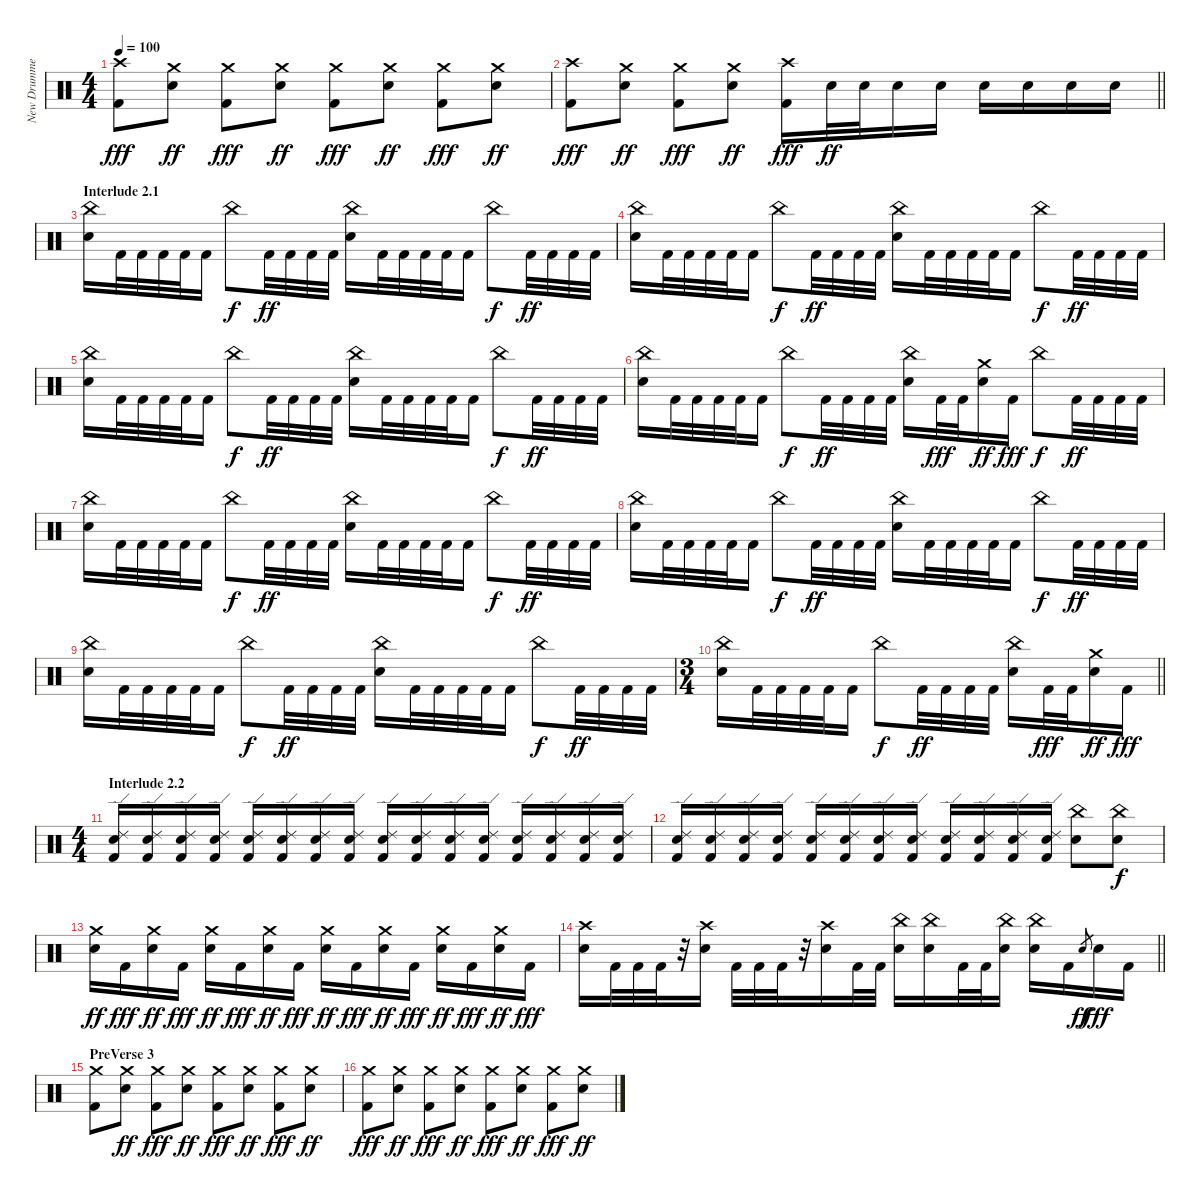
\track ("New Drummer" "New Drumme") {instrument percussion}
\staff {score}
\articulation defaults
\ts (4 4)
\tempo 100
\clef neutral
\ks c
("Crash high (hit)" "Kick (hit) 2").8{dy fff} ("Crash medium (hit)" "Electric Snare (hit)").8{dy ff} ("Crash medium (hit)" "Kick (hit) 2").8{dy fff} ("Crash medium (hit)" "Electric Snare (hit)").8{dy ff} ("Crash medium (hit)" "Kick (hit) 2").8{dy fff} ("Crash medium (hit)" "Electric Snare (hit)").8{dy ff} ("Crash medium (hit)" "Kick (hit) 2").8{dy fff} ("Crash medium (hit)" "Electric Snare (hit)").8{dy ff} |
\barLineRight lightlight
("Crash high (hit)" "Kick (hit) 2").8{dy fff} ("Crash medium (hit)" "Electric Snare (hit)").8{dy ff} ("Crash medium (hit)" "Kick (hit) 2").8{dy fff} ("Crash medium (hit)" "Electric Snare (hit)").8{dy ff} ("Crash high (hit)" "Kick (hit) 2").16{dy fff} "Electric Snare (hit)".32{dy ff} "Electric Snare (hit)".32 "Electric Snare (hit)".16 "Electric Snare (hit)".16 "Electric Snare (hit)".16 "Electric Snare (hit)".16 "Electric Snare (hit)".16 "Electric Snare (hit)".16 |
\section ("" "Interlude 2.1")
("China (hit)" "Electric Snare (hit)").16 "Kick (hit) 2".32 "Kick (hit) 2".32 "Kick (hit) 2".32 "Kick (hit) 2".32 "Kick (hit) 2".16 "China (hit)".8{dy f} "Kick (hit) 2".32{dy ff} "Kick (hit) 2".32 "Kick (hit) 2".32 "Kick (hit) 2".32 ("China (hit)" "Electric Snare (hit)").16 "Kick (hit) 2".32 "Kick (hit) 2".32 "Kick (hit) 2".32 "Kick (hit) 2".32 "Kick (hit) 2".16 "China (hit)".8{dy f} "Kick (hit) 2".32{dy ff} "Kick (hit) 2".32 "Kick (hit) 2".32 "Kick (hit) 2".32 |
("China (hit)" "Electric Snare (hit)").16 "Kick (hit) 2".32 "Kick (hit) 2".32 "Kick (hit) 2".32 "Kick (hit) 2".32 "Kick (hit) 2".16 "China (hit)".8{dy f} "Kick (hit) 2".32{dy ff} "Kick (hit) 2".32 "Kick (hit) 2".32 "Kick (hit) 2".32 ("China (hit)" "Electric Snare (hit)").16 "Kick (hit) 2".32 "Kick (hit) 2".32 "Kick (hit) 2".32 "Kick (hit) 2".32 "Kick (hit) 2".16 "China (hit)".8{dy f} "Kick (hit) 2".32{dy ff} "Kick (hit) 2".32 "Kick (hit) 2".32 "Kick (hit) 2".32 |
("China (hit)" "Electric Snare (hit)").16 "Kick (hit) 2".32 "Kick (hit) 2".32 "Kick (hit) 2".32 "Kick (hit) 2".32 "Kick (hit) 2".16 "China (hit)".8{dy f} "Kick (hit) 2".32{dy ff} "Kick (hit) 2".32 "Kick (hit) 2".32 "Kick (hit) 2".32 ("China (hit)" "Electric Snare (hit)").16 "Kick (hit) 2".32 "Kick (hit) 2".32 "Kick (hit) 2".32 "Kick (hit) 2".32 "Kick (hit) 2".16 "China (hit)".8{dy f} "Kick (hit) 2".32{dy ff} "Kick (hit) 2".32 "Kick (hit) 2".32 "Kick (hit) 2".32 |
("China (hit)" "Electric Snare (hit)").16 "Kick (hit) 2".32 "Kick (hit) 2".32 "Kick (hit) 2".32 "Kick (hit) 2".32 "Kick (hit) 2".16 "China (hit)".8{dy f} "Kick (hit) 2".32{dy ff} "Kick (hit) 2".32 "Kick (hit) 2".32 "Kick (hit) 2".32 ("China (hit)" "Electric Snare (hit)").16 "Kick (hit) 2".32{dy fff} "Kick (hit) 2".32 ("Crash medium (hit)" "Electric Snare (hit)").16{dy ff} "Kick (hit) 2".16{dy fff} "China (hit)".8{dy f} "Kick (hit) 2".32{dy ff} "Kick (hit) 2".32 "Kick (hit) 2".32 "Kick (hit) 2".32 |
("China (hit)" "Electric Snare (hit)").16 "Kick (hit) 2".32 "Kick (hit) 2".32 "Kick (hit) 2".32 "Kick (hit) 2".32 "Kick (hit) 2".16 "China (hit)".8{dy f} "Kick (hit) 2".32{dy ff} "Kick (hit) 2".32 "Kick (hit) 2".32 "Kick (hit) 2".32 ("China (hit)" "Electric Snare (hit)").16 "Kick (hit) 2".32 "Kick (hit) 2".32 "Kick (hit) 2".32 "Kick (hit) 2".32 "Kick (hit) 2".16 "China (hit)".8{dy f} "Kick (hit) 2".32{dy ff} "Kick (hit) 2".32 "Kick (hit) 2".32 "Kick (hit) 2".32 |
("China (hit)" "Electric Snare (hit)").16 "Kick (hit) 2".32 "Kick (hit) 2".32 "Kick (hit) 2".32 "Kick (hit) 2".32 "Kick (hit) 2".16 "China (hit)".8{dy f} "Kick (hit) 2".32{dy ff} "Kick (hit) 2".32 "Kick (hit) 2".32 "Kick (hit) 2".32 ("China (hit)" "Electric Snare (hit)").16 "Kick (hit) 2".32 "Kick (hit) 2".32 "Kick (hit) 2".32 "Kick (hit) 2".32 "Kick (hit) 2".16 "China (hit)".8{dy f} "Kick (hit) 2".32{dy ff} "Kick (hit) 2".32 "Kick (hit) 2".32 "Kick (hit) 2".32 |
("China (hit)" "Electric Snare (hit)").16 "Kick (hit) 2".32 "Kick (hit) 2".32 "Kick (hit) 2".32 "Kick (hit) 2".32 "Kick (hit) 2".16 "China (hit)".8{dy f} "Kick (hit) 2".32{dy ff} "Kick (hit) 2".32 "Kick (hit) 2".32 "Kick (hit) 2".32 ("China (hit)" "Electric Snare (hit)").16 "Kick (hit) 2".32 "Kick (hit) 2".32 "Kick (hit) 2".32 "Kick (hit) 2".32 "Kick (hit) 2".16 "China (hit)".8{dy f} "Kick (hit) 2".32{dy ff} "Kick (hit) 2".32 "Kick (hit) 2".32 "Kick (hit) 2".32 |
\ts (3 4)
\barLineRight lightlight
("China (hit)" "Electric Snare (hit)").16 "Kick (hit) 2".32 "Kick (hit) 2".32 "Kick (hit) 2".32 "Kick (hit) 2".32 "Kick (hit) 2".16 "China (hit)".8{dy f} "Kick (hit) 2".32{dy ff} "Kick (hit) 2".32 "Kick (hit) 2".32 "Kick (hit) 2".32 ("China (hit)" "Electric Snare (hit)").16 "Kick (hit) 2".32{dy fff} "Kick (hit) 2".32 ("Crash medium (hit)" "Electric Snare (hit)").16{dy ff} "Kick (hit) 2".16{dy fff} |
\ts (4 4)
\section ("" "Interlude 2.2")
("Ride (edge) 2" "Electric Snare (hit)" "Kick (hit) 2").16 ("Ride (edge) 2" "Electric Snare (hit)" "Kick (hit) 2").16 ("Ride (edge) 2" "Electric Snare (hit)" "Kick (hit) 2").16 ("Ride (edge) 2" "Electric Snare (hit)" "Kick (hit) 2").16 ("Ride (edge) 2" "Electric Snare (hit)" "Kick (hit) 2").16 ("Ride (edge) 2" "Electric Snare (hit)" "Kick (hit) 2").16 ("Ride (edge) 2" "Electric Snare (hit)" "Kick (hit) 2").16 ("Ride (edge) 2" "Electric Snare (hit)" "Kick (hit) 2").16 ("Ride (edge) 2" "Electric Snare (hit)" "Kick (hit) 2").16 ("Ride (edge) 2" "Electric Snare (hit)" "Kick (hit) 2").16 ("Ride (edge) 2" "Electric Snare (hit)" "Kick (hit) 2").16 ("Ride (edge) 2" "Electric Snare (hit)" "Kick (hit) 2").16 ("Ride (edge) 2" "Electric Snare (hit)" "Kick (hit) 2").16 ("Ride (edge) 2" "Electric Snare (hit)" "Kick (hit) 2").16 ("Ride (edge) 2" "Electric Snare (hit)" "Kick (hit) 2").16 ("Ride (edge) 2" "Electric Snare (hit)" "Kick (hit) 2").16 |
("Ride (edge) 2" "Electric Snare (hit)" "Kick (hit) 2").16 ("Ride (edge) 2" "Electric Snare (hit)" "Kick (hit) 2").16 ("Ride (edge) 2" "Electric Snare (hit)" "Kick (hit) 2").16 ("Ride (edge) 2" "Electric Snare (hit)" "Kick (hit) 2").16 ("Ride (edge) 2" "Electric Snare (hit)" "Kick (hit) 2").16 ("Ride (edge) 2" "Electric Snare (hit)" "Kick (hit) 2").16 ("Ride (edge) 2" "Electric Snare (hit)" "Kick (hit) 2").16 ("Ride (edge) 2" "Electric Snare (hit)" "Kick (hit) 2").16 ("Ride (edge) 2" "Electric Snare (hit)" "Kick (hit) 2").16 ("Ride (edge) 2" "Electric Snare (hit)" "Kick (hit) 2").16 ("Ride (edge) 2" "Electric Snare (hit)" "Kick (hit) 2").16 ("Ride (edge) 2" "Electric Snare (hit)" "Kick (hit) 2").16 ("China (hit)" "Electric Snare (hit)").8 ("China (hit)" "Electric Snare (hit)").8{dy f} |
("Crash medium (hit)" "Electric Snare (hit)").16{dy ff} "Kick (hit) 2".16{dy fff} ("Crash medium (hit)" "Electric Snare (hit)").16{dy ff} "Kick (hit) 2".16{dy fff} ("Crash medium (hit)" "Electric Snare (hit)").16{dy ff} "Kick (hit) 2".16{dy fff} ("Crash medium (hit)" "Electric Snare (hit)").16{dy ff} "Kick (hit) 2".16{dy fff} ("Crash medium (hit)" "Electric Snare (hit)").16{dy ff} "Kick (hit) 2".16{dy fff} ("Crash medium (hit)" "Electric Snare (hit)").16{dy ff} "Kick (hit) 2".16{dy fff} ("Crash medium (hit)" "Electric Snare (hit)").16{dy ff} "Kick (hit) 2".16{dy fff} ("Crash medium (hit)" "Electric Snare (hit)").16{dy ff} "Kick (hit) 2".16{dy fff} |
\barLineRight lightlight
("Crash high (hit)" "Electric Snare (hit)").16 "Kick (hit) 2".32 "Kick (hit) 2".32 "Kick (hit) 2".32 r.32 ("Crash high (hit)" "Electric Snare (hit)").16 "Kick (hit) 2".32 "Kick (hit) 2".32 "Kick (hit) 2".32 r.32 ("Crash high (hit)" "Electric Snare (hit)").16 "Kick (hit) 2".32 "Kick (hit) 2".32 ("China (hit)" "Electric Snare (hit)").16 ("China (hit)" "Electric Snare (hit)").16 "Kick (hit) 2".32 "Kick (hit) 2".32 ("China (hit)" "Electric Snare (hit)").16 ("China (hit)" "Electric Snare (hit)").16 "Kick (hit) 2".16 "Electric Snare (hit)".8{gr dy ff} "Electric Snare (hit)".16{dy fff} "Kick (hit) 2".16 |
\section ("" "PreVerse 3")
("Crash medium (hit)" "Kick (hit) 2").8 ("Crash medium (hit)" "Electric Snare (hit)").8{dy ff} ("Crash medium (hit)" "Kick (hit) 2").8{dy fff} ("Crash medium (hit)" "Electric Snare (hit)").8{dy ff} ("Crash medium (hit)" "Kick (hit) 2").8{dy fff} ("Crash medium (hit)" "Electric Snare (hit)").8{dy ff} ("Crash medium (hit)" "Kick (hit) 2").8{dy fff} ("Crash medium (hit)" "Electric Snare (hit)").8{dy ff} |
("Crash medium (hit)" "Kick (hit) 2").8{dy fff} ("Crash medium (hit)" "Electric Snare (hit)").8{dy ff} ("Crash medium (hit)" "Kick (hit) 2").8{dy fff} ("Crash medium (hit)" "Electric Snare (hit)").8{dy ff} ("Crash medium (hit)" "Kick (hit) 2").8{dy fff} ("Crash medium (hit)" "Electric Snare (hit)").8{dy ff} ("Crash medium (hit)" "Kick (hit) 2").8{dy fff} ("Crash medium (hit)" "Electric Snare (hit)").8{dy ff}
